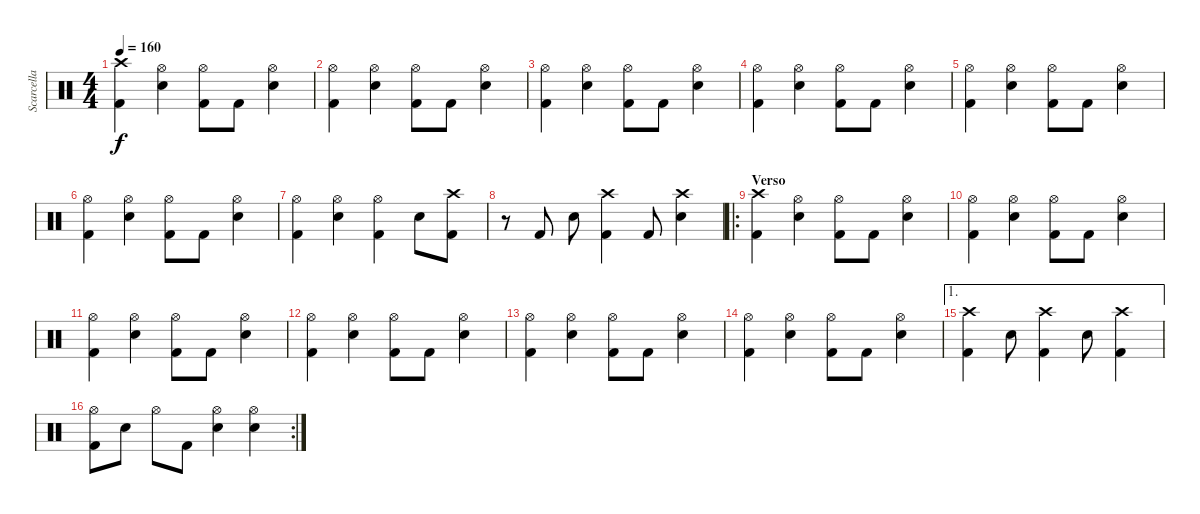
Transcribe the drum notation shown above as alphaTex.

\track ("Scarcella" "Scarcella") {instrument percussion}
\staff {score}
\articulation defaults
\ts (4 4)
\tempo 160
\clef neutral
\ks c
("Crash high (hit)" "Kick (hit) 2").4{dy f} ("Hi-Hat (open)" "Snare (hit) 2").4 ("Hi-Hat (open)" "Kick (hit) 2").8 "Kick (hit) 2".8 ("Hi-Hat (open)" "Snare (hit) 2").4 |
("Hi-Hat (open)" "Kick (hit) 2").4 ("Hi-Hat (open)" "Snare (hit) 2").4 ("Hi-Hat (open)" "Kick (hit) 2").8 "Kick (hit) 2".8 ("Hi-Hat (open)" "Snare (hit) 2").4 |
("Hi-Hat (open)" "Kick (hit) 2").4 ("Hi-Hat (open)" "Snare (hit) 2").4 ("Hi-Hat (open)" "Kick (hit) 2").8 "Kick (hit) 2".8 ("Hi-Hat (open)" "Snare (hit) 2").4 |
("Hi-Hat (open)" "Kick (hit) 2").4 ("Hi-Hat (open)" "Snare (hit) 2").4 ("Hi-Hat (open)" "Kick (hit) 2").8 "Kick (hit) 2".8 ("Hi-Hat (open)" "Snare (hit) 2").4 |
("Hi-Hat (open)" "Kick (hit) 2").4 ("Hi-Hat (open)" "Snare (hit) 2").4 ("Hi-Hat (open)" "Kick (hit) 2").8 "Kick (hit) 2".8 ("Hi-Hat (open)" "Snare (hit) 2").4 |
("Hi-Hat (open)" "Kick (hit) 2").4 ("Hi-Hat (open)" "Snare (hit) 2").4 ("Hi-Hat (open)" "Kick (hit) 2").8 "Kick (hit) 2".8 ("Hi-Hat (open)" "Snare (hit) 2").4 |
("Hi-Hat (open)" "Kick (hit) 2").4 ("Hi-Hat (open)" "Snare (hit) 2").4 ("Hi-Hat (open)" "Kick (hit) 2").4 "Snare (hit) 2".8 ("Crash high (hit)" "Kick (hit) 2").8 |
r.8 "Kick (hit) 2".8 "Snare (hit) 2".8 ("Crash high (hit)" "Kick (hit) 2").4 "Kick (hit) 2".8 ("Crash high (hit)" "Snare (hit) 2").4 |
\ro
\section ("" "Verso")
("Crash high (hit)" "Kick (hit) 2").4 ("Hi-Hat (open)" "Snare (hit) 2").4 ("Hi-Hat (open)" "Kick (hit) 2").8 "Kick (hit) 2".8 ("Hi-Hat (open)" "Snare (hit) 2").4 |
("Hi-Hat (open)" "Kick (hit) 2").4 ("Hi-Hat (open)" "Snare (hit) 2").4 ("Hi-Hat (open)" "Kick (hit) 2").8 "Kick (hit) 2".8 ("Hi-Hat (open)" "Snare (hit) 2").4 |
("Hi-Hat (open)" "Kick (hit) 2").4 ("Hi-Hat (open)" "Snare (hit) 2").4 ("Hi-Hat (open)" "Kick (hit) 2").8 "Kick (hit) 2".8 ("Hi-Hat (open)" "Snare (hit) 2").4 |
("Hi-Hat (open)" "Kick (hit) 2").4 ("Hi-Hat (open)" "Snare (hit) 2").4 ("Hi-Hat (open)" "Kick (hit) 2").8 "Kick (hit) 2".8 ("Hi-Hat (open)" "Snare (hit) 2").4 |
("Hi-Hat (open)" "Kick (hit) 2").4 ("Hi-Hat (open)" "Snare (hit) 2").4 ("Hi-Hat (open)" "Kick (hit) 2").8 "Kick (hit) 2".8 ("Hi-Hat (open)" "Snare (hit) 2").4 |
("Hi-Hat (open)" "Kick (hit) 2").4 ("Hi-Hat (open)" "Snare (hit) 2").4 ("Hi-Hat (open)" "Kick (hit) 2").8 "Kick (hit) 2".8 ("Hi-Hat (open)" "Snare (hit) 2").4 |
\ae 1
("Crash high (hit)" "Kick (hit) 2").4 "Snare (hit) 2".8 ("Crash high (hit)" "Kick (hit) 2").4 "Snare (hit) 2".8 ("Crash high (hit)" "Kick (hit) 2").4 |
\rc 2
("Hi-Hat (open)" "Kick (hit) 2").8 "Snare (hit) 2".8 "Hi-Hat (open)".8 "Kick (hit) 2".8 ("Hi-Hat (open)" "Snare (hit) 2").4 ("Hi-Hat (open)" "Snare (hit) 2").4
